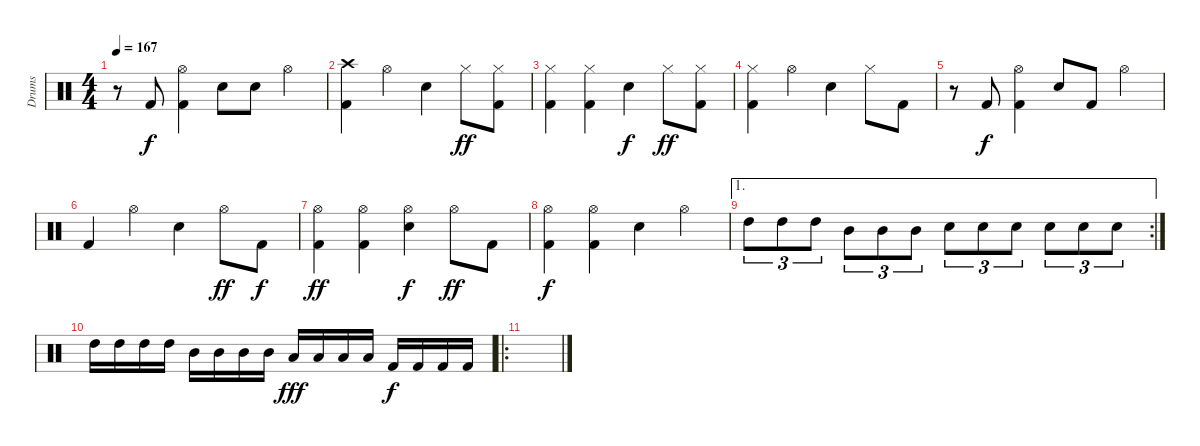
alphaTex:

\track ("Drums" "Drums") {instrument percussion}
\staff {score}
\articulation defaults
\ts (4 4)
\tempo 167
\clef neutral
\ks c
r.8{dy f} "Kick (hit) 2".8 ("Hi-Hat (open)" "Kick (hit) 2").4 "Electric Snare (hit)".8 "Electric Snare (hit)".8 "Hi-Hat (open)".4 |
("Crash high (hit)" "Kick (hit) 2").4 "Hi-Hat (open)".4 "Electric Snare (hit)".4 "Hi-Hat (closed)".8{dy ff} ("Hi-Hat (closed)" "Kick (hit) 2").8 |
("Hi-Hat (closed)" "Kick (hit) 2").4 ("Hi-Hat (closed)" "Kick (hit) 2").4 "Electric Snare (hit)".4{dy f} "Hi-Hat (closed)".8{dy ff} ("Hi-Hat (closed)" "Kick (hit) 2").8 |
("Hi-Hat (closed)" "Kick (hit) 2").4 "Hi-Hat (open)".4 "Electric Snare (hit)".4 "Hi-Hat (closed)".8 "Kick (hit) 2".8 |
r.8 "Kick (hit) 2".8{dy f} ("Hi-Hat (open)" "Kick (hit) 2").4 "Electric Snare (hit)".8 "Kick (hit) 2".8 "Hi-Hat (open)".4 |
"Kick (hit) 2".4 "Hi-Hat (open)".4 "Electric Snare (hit)".4 "Hi-Hat (open)".8{dy ff} "Kick (hit) 2".8{dy f} |
("Hi-Hat (open)" "Kick (hit) 2").4{dy ff} ("Hi-Hat (open)" "Kick (hit) 2").4 ("Electric Snare (hit)" "Hi-Hat (open)").4{dy f} "Hi-Hat (open)".8{dy ff} "Kick (hit) 2".8 |
("Hi-Hat (open)" "Kick (hit) 2").4{dy f} ("Hi-Hat (open)" "Kick (hit) 2").4 "Electric Snare (hit)".4 "Hi-Hat (open)".4 |
\ae 1
\rc 2 "High Tom (hit)".8{tu (3 2)} "High Tom (hit)".8{tu (3 2)} "High Tom (hit)".8{tu (3 2)} "Mid Tom (hit)".8{tu (3 2)} "Mid Tom (hit)".8{tu (3 2)} "Mid Tom (hit)".8{tu (3 2)} "Electric Snare (hit)".8{tu (3 2)} "Electric Snare (hit)".8{tu (3 2)} "Electric Snare (hit)".8{tu (3 2)} "Electric Snare (hit)".8{tu (3 2)} "Electric Snare (hit)".8{tu (3 2)} "Electric Snare (hit)".8{tu (3 2)}
|
"High Tom (hit)".16 "High Tom (hit)".16 "High Tom (hit)".16 "High Tom (hit)".16 "Mid Tom (hit)".16 "Mid Tom (hit)".16 "Mid Tom (hit)".16 "Mid Tom (hit)".16 "Low Tom (hit)".16{dy fff} "Low Tom (hit)".16 "Low Tom (hit)".16 "Low Tom (hit)".16 "Kick (hit) 2".16{dy f} "Kick (hit) 2".16 "Kick (hit) 2".16 "Kick (hit) 2".16 |
\ro
